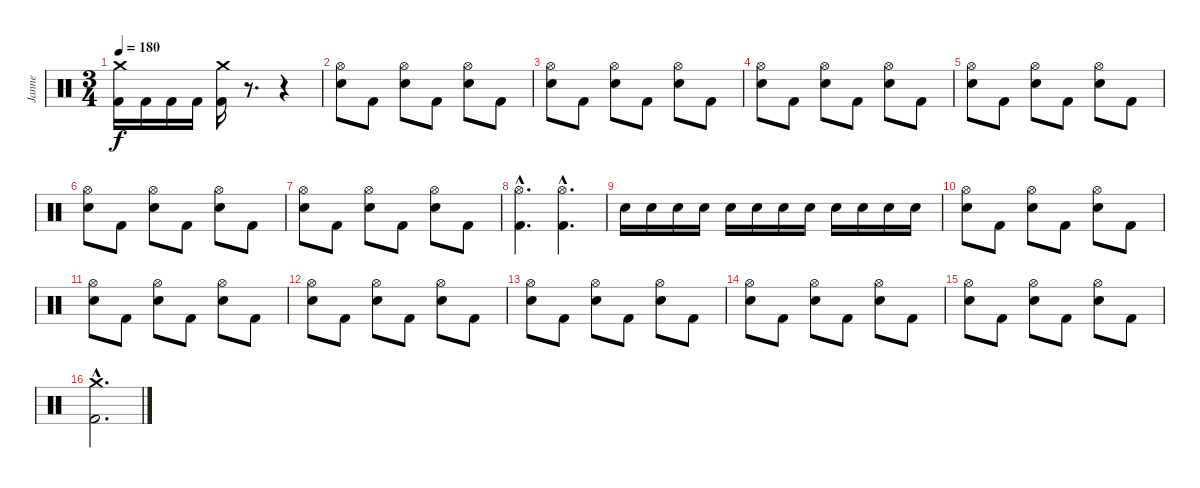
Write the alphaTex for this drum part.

\track ("Janne" "Janne") {instrument percussion}
\staff {score}
\articulation defaults
\ts (3 4)
\tempo 180
\clef neutral
\ks c
("Crash medium (hit)" "Kick (hit) 2").16{dy f} "Kick (hit) 2".16 "Kick (hit) 2".16 "Kick (hit) 2".16 ("Crash medium (hit)" "Kick (hit) 2").16 r.8{d} r.4 |
("Hi-Hat (open)" "Electric Snare (hit)").8 "Kick (hit) 2".8 ("Hi-Hat (open)" "Electric Snare (hit)").8 "Kick (hit) 2".8 ("Hi-Hat (open)" "Electric Snare (hit)").8 "Kick (hit) 2".8 |
("Hi-Hat (open)" "Electric Snare (hit)").8 "Kick (hit) 2".8 ("Hi-Hat (open)" "Electric Snare (hit)").8 "Kick (hit) 2".8 ("Hi-Hat (open)" "Electric Snare (hit)").8 "Kick (hit) 2".8 |
("Hi-Hat (open)" "Electric Snare (hit)").8 "Kick (hit) 2".8 ("Hi-Hat (open)" "Electric Snare (hit)").8 "Kick (hit) 2".8 ("Hi-Hat (open)" "Electric Snare (hit)").8 "Kick (hit) 2".8 |
("Hi-Hat (open)" "Electric Snare (hit)").8 "Kick (hit) 2".8 ("Hi-Hat (open)" "Electric Snare (hit)").8 "Kick (hit) 2".8 ("Hi-Hat (open)" "Electric Snare (hit)").8 "Kick (hit) 2".8 |
("Hi-Hat (open)" "Electric Snare (hit)").8 "Kick (hit) 2".8 ("Hi-Hat (open)" "Electric Snare (hit)").8 "Kick (hit) 2".8 ("Hi-Hat (open)" "Electric Snare (hit)").8 "Kick (hit) 2".8 |
("Hi-Hat (open)" "Electric Snare (hit)").8 "Kick (hit) 2".8 ("Hi-Hat (open)" "Electric Snare (hit)").8 "Kick (hit) 2".8 ("Hi-Hat (open)" "Electric Snare (hit)").8 "Kick (hit) 2".8 |
("Hi-Hat (open)"{hac} "Kick (hit) 2"{hac}).4{d} ("Hi-Hat (open)"{hac} "Kick (hit) 2"{hac}).4{d} |
"Electric Snare (hit)".16 "Electric Snare (hit)".16 "Electric Snare (hit)".16 "Electric Snare (hit)".16 "Electric Snare (hit)".16 "Electric Snare (hit)".16 "Electric Snare (hit)".16 "Electric Snare (hit)".16 "Electric Snare (hit)".16 "Electric Snare (hit)".16 "Electric Snare (hit)".16 "Electric Snare (hit)".16 |
("Hi-Hat (open)" "Electric Snare (hit)").8 "Kick (hit) 2".8 ("Hi-Hat (open)" "Electric Snare (hit)").8 "Kick (hit) 2".8 ("Hi-Hat (open)" "Electric Snare (hit)").8 "Kick (hit) 2".8 |
("Hi-Hat (open)" "Electric Snare (hit)").8 "Kick (hit) 2".8 ("Hi-Hat (open)" "Electric Snare (hit)").8 "Kick (hit) 2".8 ("Hi-Hat (open)" "Electric Snare (hit)").8 "Kick (hit) 2".8 |
("Hi-Hat (open)" "Electric Snare (hit)").8 "Kick (hit) 2".8 ("Hi-Hat (open)" "Electric Snare (hit)").8 "Kick (hit) 2".8 ("Hi-Hat (open)" "Electric Snare (hit)").8 "Kick (hit) 2".8 |
("Hi-Hat (open)" "Electric Snare (hit)").8 "Kick (hit) 2".8 ("Hi-Hat (open)" "Electric Snare (hit)").8 "Kick (hit) 2".8 ("Hi-Hat (open)" "Electric Snare (hit)").8 "Kick (hit) 2".8 |
("Hi-Hat (open)" "Electric Snare (hit)").8 "Kick (hit) 2".8 ("Hi-Hat (open)" "Electric Snare (hit)").8 "Kick (hit) 2".8 ("Hi-Hat (open)" "Electric Snare (hit)").8 "Kick (hit) 2".8 |
("Hi-Hat (open)" "Electric Snare (hit)").8 "Kick (hit) 2".8 ("Hi-Hat (open)" "Electric Snare (hit)").8 "Kick (hit) 2".8 ("Hi-Hat (open)" "Electric Snare (hit)").8 "Kick (hit) 2".8 |
("Crash medium (hit)"{hac} "Kick (hit) 2"{hac}).2{d}
